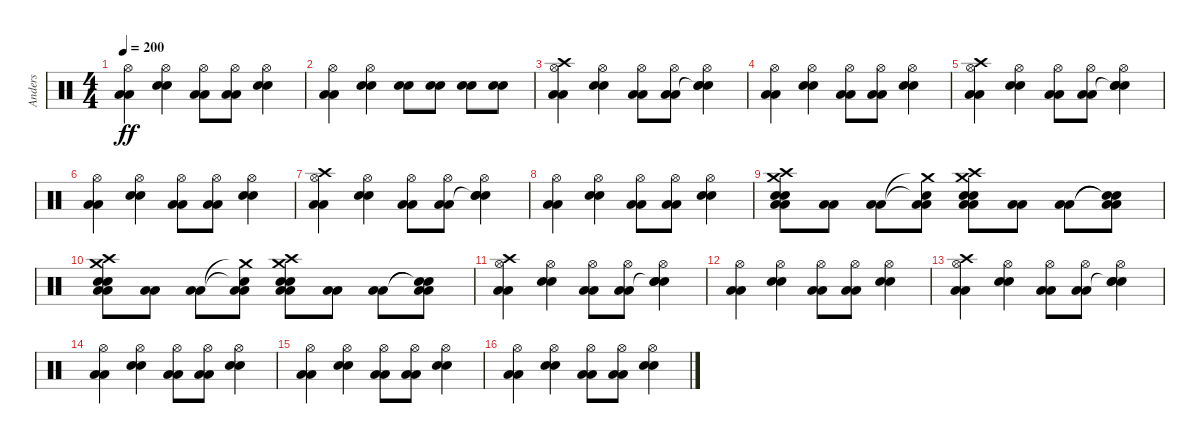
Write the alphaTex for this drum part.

\track ("Anders" "Anders") {instrument percussion}
\staff {score}
\articulation defaults
\ts (4 4)
\tempo 200
\clef neutral
\ks c
("Hi-Hat (open)" "Low Floor Tom (hit)" "Low Floor Tom (hit)").4{dy ff} ("Hi-Hat (open)" "Electric Snare (hit)" "Electric Snare (hit)").4 ("Hi-Hat (open)" "Low Floor Tom (hit)" "Low Floor Tom (hit)").8 ("Hi-Hat (open)" "Low Floor Tom (hit)" "Low Floor Tom (hit)").8 ("Hi-Hat (open)" "Electric Snare (hit)" "Electric Snare (hit)").4 |
("Hi-Hat (open)" "Low Floor Tom (hit)" "Low Floor Tom (hit)").4 ("Hi-Hat (open)" "Electric Snare (hit)" "Electric Snare (hit)").4 ("Electric Snare (hit)" "Electric Snare (hit)").8 ("Electric Snare (hit)" "Electric Snare (hit)").8 ("Electric Snare (hit)" "Electric Snare (hit)").8 ("Electric Snare (hit)" "Electric Snare (hit)").8 |
("Hi-Hat (open)" "Crash high (hit)" "Low Floor Tom (hit)" "Low Floor Tom (hit)").4 ("Hi-Hat (open)" "Electric Snare (hit)" "Electric Snare (hit)").4 ("Hi-Hat (open)" "Low Floor Tom (hit)" "Low Floor Tom (hit)").8 ("Hi-Hat (open)" "Low Floor Tom (hit)" "Low Floor Tom (hit)").8 ("Hi-Hat (open)" "Snare (hit)"{t} "Electric Snare (hit)" "Electric Snare (hit)").4 |
("Hi-Hat (open)" "Low Floor Tom (hit)" "Low Floor Tom (hit)").4 ("Hi-Hat (open)" "Electric Snare (hit)" "Electric Snare (hit)").4 ("Hi-Hat (open)" "Low Floor Tom (hit)" "Low Floor Tom (hit)").8 ("Hi-Hat (open)" "Low Floor Tom (hit)" "Low Floor Tom (hit)").8 ("Hi-Hat (open)" "Electric Snare (hit)" "Electric Snare (hit)").4 |
("Hi-Hat (open)" "Crash high (hit)" "Low Floor Tom (hit)" "Low Floor Tom (hit)").4 ("Hi-Hat (open)" "Electric Snare (hit)" "Electric Snare (hit)").4 ("Hi-Hat (open)" "Low Floor Tom (hit)" "Low Floor Tom (hit)").8 ("Hi-Hat (open)" "Low Floor Tom (hit)" "Low Floor Tom (hit)").8 ("Hi-Hat (open)" "Snare (hit)"{t} "Electric Snare (hit)" "Electric Snare (hit)").4 |
("Hi-Hat (open)" "Low Floor Tom (hit)" "Low Floor Tom (hit)").4 ("Hi-Hat (open)" "Electric Snare (hit)" "Electric Snare (hit)").4 ("Hi-Hat (open)" "Low Floor Tom (hit)" "Low Floor Tom (hit)").8 ("Hi-Hat (open)" "Low Floor Tom (hit)" "Low Floor Tom (hit)").8 ("Hi-Hat (open)" "Electric Snare (hit)" "Electric Snare (hit)").4 |
("Hi-Hat (open)" "Crash high (hit)" "Low Floor Tom (hit)" "Low Floor Tom (hit)").4 ("Hi-Hat (open)" "Electric Snare (hit)" "Electric Snare (hit)").4 ("Hi-Hat (open)" "Low Floor Tom (hit)" "Low Floor Tom (hit)").8 ("Hi-Hat (open)" "Low Floor Tom (hit)" "Low Floor Tom (hit)").8 ("Hi-Hat (open)" "Snare (hit)"{t} "Electric Snare (hit)" "Electric Snare (hit)").4 |
("Hi-Hat (open)" "Low Floor Tom (hit)" "Low Floor Tom (hit)").4 ("Hi-Hat (open)" "Electric Snare (hit)" "Electric Snare (hit)").4 ("Hi-Hat (open)" "Low Floor Tom (hit)" "Low Floor Tom (hit)").8 ("Hi-Hat (open)" "Low Floor Tom (hit)" "Low Floor Tom (hit)").8 ("Hi-Hat (open)" "Electric Snare (hit)" "Electric Snare (hit)").4 |
("Crash high (hit)" "Crash medium (hit)" "Electric Snare (hit)" "Electric Snare (hit)" "Low Floor Tom (hit)" "Low Floor Tom (hit)").8 ("Low Floor Tom (hit)" "Low Floor Tom (hit)").8 ("Low Floor Tom (hit)" "Low Floor Tom (hit)").8 ("Crash medium (hit)"{t} "Snare (hit)"{t} "Low Floor Tom (hit)" "Low Floor Tom (hit)").8 ("Crash medium (hit)" "Crash high (hit)" "Electric Snare (hit)" "Electric Snare (hit)" "Low Floor Tom (hit)" "Low Floor Tom (hit)").8 ("Low Floor Tom (hit)" "Low Floor Tom (hit)").8 ("Low Floor Tom (hit)" "Low Floor Tom (hit)").8 ("Snare (hit)"{t} "Snare (hit)"{t} "Low Floor Tom (hit)" "Low Floor Tom (hit)").8 |
("Crash high (hit)" "Crash medium (hit)" "Electric Snare (hit)" "Electric Snare (hit)" "Low Floor Tom (hit)" "Low Floor Tom (hit)").8 ("Low Floor Tom (hit)" "Low Floor Tom (hit)").8 ("Low Floor Tom (hit)" "Low Floor Tom (hit)").8 ("Crash medium (hit)"{t} "Snare (hit)"{t} "Low Floor Tom (hit)" "Low Floor Tom (hit)").8 ("Crash medium (hit)" "Crash high (hit)" "Electric Snare (hit)" "Electric Snare (hit)" "Low Floor Tom (hit)" "Low Floor Tom (hit)").8 ("Low Floor Tom (hit)" "Low Floor Tom (hit)").8 ("Low Floor Tom (hit)" "Low Floor Tom (hit)").8 ("Snare (hit)"{t} "Snare (hit)"{t} "Low Floor Tom (hit)" "Low Floor Tom (hit)").8 |
("Hi-Hat (open)" "Crash high (hit)" "Low Floor Tom (hit)" "Low Floor Tom (hit)").4 ("Hi-Hat (open)" "Electric Snare (hit)" "Electric Snare (hit)").4 ("Hi-Hat (open)" "Low Floor Tom (hit)" "Low Floor Tom (hit)").8 ("Hi-Hat (open)" "Low Floor Tom (hit)" "Low Floor Tom (hit)").8 ("Hi-Hat (open)" "Snare (hit)"{t} "Electric Snare (hit)" "Electric Snare (hit)").4 |
("Hi-Hat (open)" "Low Floor Tom (hit)" "Low Floor Tom (hit)").4 ("Hi-Hat (open)" "Electric Snare (hit)" "Electric Snare (hit)").4 ("Hi-Hat (open)" "Low Floor Tom (hit)" "Low Floor Tom (hit)").8 ("Hi-Hat (open)" "Low Floor Tom (hit)" "Low Floor Tom (hit)").8 ("Hi-Hat (open)" "Electric Snare (hit)" "Electric Snare (hit)").4 |
("Hi-Hat (open)" "Crash high (hit)" "Low Floor Tom (hit)" "Low Floor Tom (hit)").4 ("Hi-Hat (open)" "Electric Snare (hit)" "Electric Snare (hit)").4 ("Hi-Hat (open)" "Low Floor Tom (hit)" "Low Floor Tom (hit)").8 ("Hi-Hat (open)" "Low Floor Tom (hit)" "Low Floor Tom (hit)").8 ("Hi-Hat (open)" "Snare (hit)"{t} "Electric Snare (hit)" "Electric Snare (hit)").4 |
("Hi-Hat (open)" "Low Floor Tom (hit)" "Low Floor Tom (hit)").4 ("Hi-Hat (open)" "Electric Snare (hit)" "Electric Snare (hit)").4 ("Hi-Hat (open)" "Low Floor Tom (hit)" "Low Floor Tom (hit)").8 ("Hi-Hat (open)" "Low Floor Tom (hit)" "Low Floor Tom (hit)").8 ("Hi-Hat (open)" "Electric Snare (hit)" "Electric Snare (hit)").4 |
("Hi-Hat (open)" "Low Floor Tom (hit)" "Low Floor Tom (hit)").4 ("Hi-Hat (open)" "Electric Snare (hit)" "Electric Snare (hit)").4 ("Hi-Hat (open)" "Low Floor Tom (hit)" "Low Floor Tom (hit)").8 ("Hi-Hat (open)" "Low Floor Tom (hit)" "Low Floor Tom (hit)").8 ("Hi-Hat (open)" "Electric Snare (hit)" "Electric Snare (hit)").4 |
("Hi-Hat (open)" "Low Floor Tom (hit)" "Low Floor Tom (hit)").4 ("Hi-Hat (open)" "Electric Snare (hit)" "Electric Snare (hit)").4 ("Hi-Hat (open)" "Low Floor Tom (hit)" "Low Floor Tom (hit)").8 ("Hi-Hat (open)" "Low Floor Tom (hit)" "Low Floor Tom (hit)").8 ("Hi-Hat (open)" "Electric Snare (hit)" "Electric Snare (hit)").4
